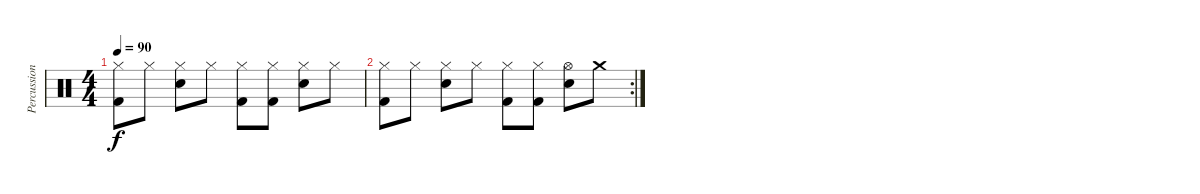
\track ("Percussions" "Percussion") {instrument percussion}
\staff {score}
\articulation defaults
\ts (4 4)
\tempo 90
\clef neutral
\ks c
("Hi-Hat (closed)" "Kick (hit) 2").8{dy f} "Hi-Hat (closed)".8 ("Hi-Hat (closed)" "Snare (hit) 2").8 "Hi-Hat (closed)".8 ("Hi-Hat (closed)" "Kick (hit) 2").8 ("Hi-Hat (closed)" "Kick (hit) 2").8 ("Hi-Hat (closed)" "Snare (hit) 2").8 "Hi-Hat (closed)".8 |
\rc 2
("Hi-Hat (closed)" "Kick (hit) 2").8 "Hi-Hat (closed)".8 ("Hi-Hat (closed)" "Snare (hit) 2").8 "Hi-Hat (closed)".8 ("Hi-Hat (closed)" "Kick (hit) 2").8 ("Hi-Hat (closed)" "Kick (hit) 2").8 ("Hi-Hat (open)" "Snare (hit) 2").8 "Crash medium (hit)".8
